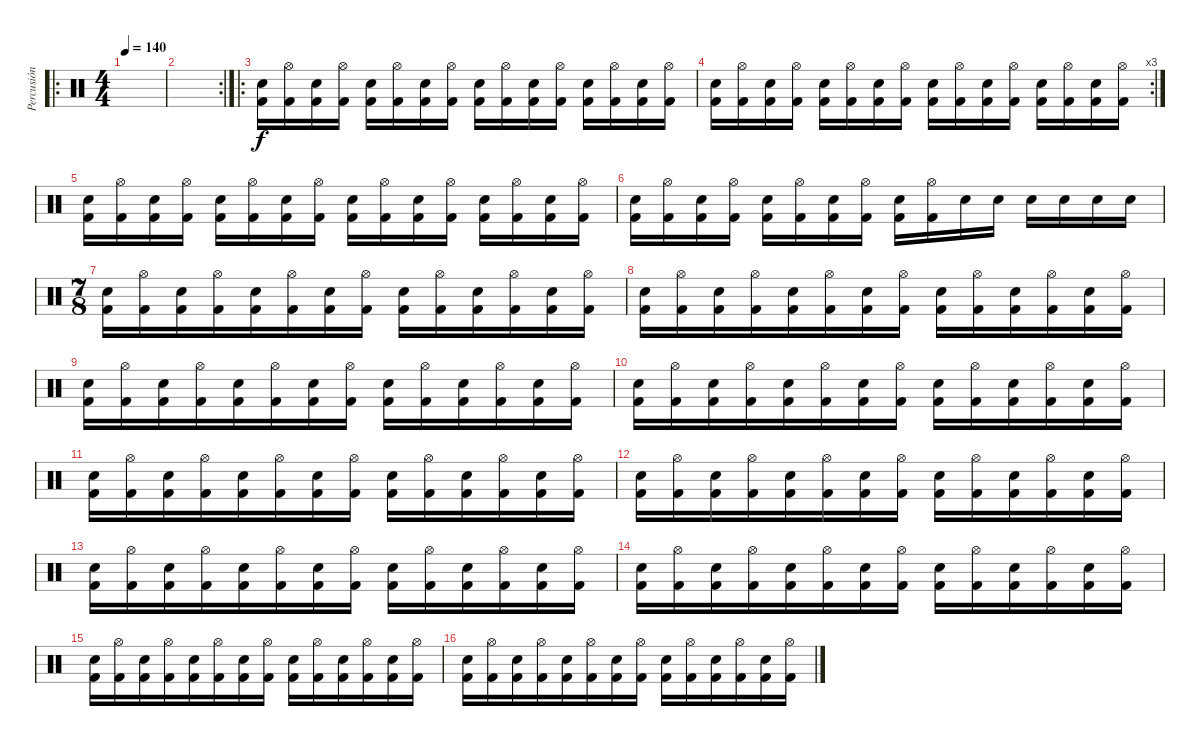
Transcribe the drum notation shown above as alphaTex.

\track ("Percusión" "Percusión") {instrument percussion}
\staff {score}
\articulation defaults
\ro
\ts (4 4)
\tempo 140
\clef neutral
\ks c
|
\rc 2
|
\ro
("Snare (hit) 2" "Kick (hit) 2").16 ("Hi-Hat (open)" "Kick (hit) 2").16 ("Snare (hit) 2" "Kick (hit) 2").16 ("Hi-Hat (open)" "Kick (hit) 2").16 ("Snare (hit) 2" "Kick (hit) 2").16 ("Hi-Hat (open)" "Kick (hit) 2").16 ("Snare (hit) 2" "Kick (hit) 2").16 ("Hi-Hat (open)" "Kick (hit) 2").16 ("Snare (hit) 2" "Kick (hit) 2").16 ("Hi-Hat (open)" "Kick (hit) 2").16 ("Snare (hit) 2" "Kick (hit) 2").16 ("Hi-Hat (open)" "Kick (hit) 2").16 ("Snare (hit) 2" "Kick (hit) 2").16 ("Hi-Hat (open)" "Kick (hit) 2").16 ("Snare (hit) 2" "Kick (hit) 2").16 ("Hi-Hat (open)" "Kick (hit) 2").16 |
\rc 3
("Snare (hit) 2" "Kick (hit) 2").16 ("Hi-Hat (open)" "Kick (hit) 2").16 ("Snare (hit) 2" "Kick (hit) 2").16 ("Hi-Hat (open)" "Kick (hit) 2").16 ("Snare (hit) 2" "Kick (hit) 2").16 ("Hi-Hat (open)" "Kick (hit) 2").16 ("Snare (hit) 2" "Kick (hit) 2").16 ("Hi-Hat (open)" "Kick (hit) 2").16 ("Snare (hit) 2" "Kick (hit) 2").16 ("Hi-Hat (open)" "Kick (hit) 2").16 ("Snare (hit) 2" "Kick (hit) 2").16 ("Hi-Hat (open)" "Kick (hit) 2").16 ("Snare (hit) 2" "Kick (hit) 2").16 ("Hi-Hat (open)" "Kick (hit) 2").16 ("Snare (hit) 2" "Kick (hit) 2").16 ("Hi-Hat (open)" "Kick (hit) 2").16 |
("Snare (hit) 2" "Kick (hit) 2").16 ("Hi-Hat (open)" "Kick (hit) 2").16 ("Snare (hit) 2" "Kick (hit) 2").16 ("Hi-Hat (open)" "Kick (hit) 2").16 ("Snare (hit) 2" "Kick (hit) 2").16 ("Hi-Hat (open)" "Kick (hit) 2").16 ("Snare (hit) 2" "Kick (hit) 2").16 ("Hi-Hat (open)" "Kick (hit) 2").16 ("Snare (hit) 2" "Kick (hit) 2").16 ("Hi-Hat (open)" "Kick (hit) 2").16 ("Snare (hit) 2" "Kick (hit) 2").16 ("Hi-Hat (open)" "Kick (hit) 2").16 ("Snare (hit) 2" "Kick (hit) 2").16 ("Hi-Hat (open)" "Kick (hit) 2").16 ("Snare (hit) 2" "Kick (hit) 2").16 ("Hi-Hat (open)" "Kick (hit) 2").16 |
("Snare (hit) 2" "Kick (hit) 2").16 ("Hi-Hat (open)" "Kick (hit) 2").16 ("Snare (hit) 2" "Kick (hit) 2").16 ("Hi-Hat (open)" "Kick (hit) 2").16 ("Snare (hit) 2" "Kick (hit) 2").16 ("Hi-Hat (open)" "Kick (hit) 2").16 ("Snare (hit) 2" "Kick (hit) 2").16 ("Hi-Hat (open)" "Kick (hit) 2").16 ("Snare (hit) 2" "Kick (hit) 2").16 ("Hi-Hat (open)" "Kick (hit) 2").16 "Snare (hit) 2".16 "Snare (hit) 2".16 "Snare (hit) 2".16 "Snare (hit) 2".16 "Snare (hit) 2".16 "Snare (hit) 2".16 |
\ts (7 8)
("Snare (hit) 2" "Kick (hit) 2").16 ("Hi-Hat (open)" "Kick (hit) 2").16 ("Snare (hit) 2" "Kick (hit) 2").16 ("Hi-Hat (open)" "Kick (hit) 2").16 ("Snare (hit) 2" "Kick (hit) 2").16 ("Hi-Hat (open)" "Kick (hit) 2").16 ("Snare (hit) 2" "Kick (hit) 2").16 ("Hi-Hat (open)" "Kick (hit) 2").16 ("Snare (hit) 2" "Kick (hit) 2").16 ("Hi-Hat (open)" "Kick (hit) 2").16 ("Snare (hit) 2" "Kick (hit) 2").16 ("Hi-Hat (open)" "Kick (hit) 2").16 ("Snare (hit) 2" "Kick (hit) 2").16 ("Hi-Hat (open)" "Kick (hit) 2").16 |
("Snare (hit) 2" "Kick (hit) 2").16 ("Hi-Hat (open)" "Kick (hit) 2").16 ("Snare (hit) 2" "Kick (hit) 2").16 ("Hi-Hat (open)" "Kick (hit) 2").16 ("Snare (hit) 2" "Kick (hit) 2").16 ("Hi-Hat (open)" "Kick (hit) 2").16 ("Snare (hit) 2" "Kick (hit) 2").16 ("Hi-Hat (open)" "Kick (hit) 2").16 ("Snare (hit) 2" "Kick (hit) 2").16 ("Hi-Hat (open)" "Kick (hit) 2").16 ("Snare (hit) 2" "Kick (hit) 2").16 ("Hi-Hat (open)" "Kick (hit) 2").16 ("Snare (hit) 2" "Kick (hit) 2").16 ("Hi-Hat (open)" "Kick (hit) 2").16 |
("Snare (hit) 2" "Kick (hit) 2").16 ("Hi-Hat (open)" "Kick (hit) 2").16 ("Snare (hit) 2" "Kick (hit) 2").16 ("Hi-Hat (open)" "Kick (hit) 2").16 ("Snare (hit) 2" "Kick (hit) 2").16 ("Hi-Hat (open)" "Kick (hit) 2").16 ("Snare (hit) 2" "Kick (hit) 2").16 ("Hi-Hat (open)" "Kick (hit) 2").16 ("Snare (hit) 2" "Kick (hit) 2").16 ("Hi-Hat (open)" "Kick (hit) 2").16 ("Snare (hit) 2" "Kick (hit) 2").16 ("Hi-Hat (open)" "Kick (hit) 2").16 ("Snare (hit) 2" "Kick (hit) 2").16 ("Hi-Hat (open)" "Kick (hit) 2").16 |
("Snare (hit) 2" "Kick (hit) 2").16 ("Hi-Hat (open)" "Kick (hit) 2").16 ("Snare (hit) 2" "Kick (hit) 2").16 ("Hi-Hat (open)" "Kick (hit) 2").16 ("Snare (hit) 2" "Kick (hit) 2").16 ("Hi-Hat (open)" "Kick (hit) 2").16 ("Snare (hit) 2" "Kick (hit) 2").16 ("Hi-Hat (open)" "Kick (hit) 2").16 ("Snare (hit) 2" "Kick (hit) 2").16 ("Hi-Hat (open)" "Kick (hit) 2").16 ("Snare (hit) 2" "Kick (hit) 2").16 ("Hi-Hat (open)" "Kick (hit) 2").16 ("Snare (hit) 2" "Kick (hit) 2").16 ("Hi-Hat (open)" "Kick (hit) 2").16 |
("Snare (hit) 2" "Kick (hit) 2").16 ("Hi-Hat (open)" "Kick (hit) 2").16 ("Snare (hit) 2" "Kick (hit) 2").16 ("Hi-Hat (open)" "Kick (hit) 2").16 ("Snare (hit) 2" "Kick (hit) 2").16 ("Hi-Hat (open)" "Kick (hit) 2").16 ("Snare (hit) 2" "Kick (hit) 2").16 ("Hi-Hat (open)" "Kick (hit) 2").16 ("Snare (hit) 2" "Kick (hit) 2").16 ("Hi-Hat (open)" "Kick (hit) 2").16 ("Snare (hit) 2" "Kick (hit) 2").16 ("Hi-Hat (open)" "Kick (hit) 2").16 ("Snare (hit) 2" "Kick (hit) 2").16 ("Hi-Hat (open)" "Kick (hit) 2").16 |
("Snare (hit) 2" "Kick (hit) 2").16 ("Hi-Hat (open)" "Kick (hit) 2").16 ("Snare (hit) 2" "Kick (hit) 2").16 ("Hi-Hat (open)" "Kick (hit) 2").16 ("Snare (hit) 2" "Kick (hit) 2").16 ("Hi-Hat (open)" "Kick (hit) 2").16 ("Snare (hit) 2" "Kick (hit) 2").16 ("Hi-Hat (open)" "Kick (hit) 2").16 ("Snare (hit) 2" "Kick (hit) 2").16 ("Hi-Hat (open)" "Kick (hit) 2").16 ("Snare (hit) 2" "Kick (hit) 2").16 ("Hi-Hat (open)" "Kick (hit) 2").16 ("Snare (hit) 2" "Kick (hit) 2").16 ("Hi-Hat (open)" "Kick (hit) 2").16 |
("Snare (hit) 2" "Kick (hit) 2").16 ("Hi-Hat (open)" "Kick (hit) 2").16 ("Snare (hit) 2" "Kick (hit) 2").16 ("Hi-Hat (open)" "Kick (hit) 2").16 ("Snare (hit) 2" "Kick (hit) 2").16 ("Hi-Hat (open)" "Kick (hit) 2").16 ("Snare (hit) 2" "Kick (hit) 2").16 ("Hi-Hat (open)" "Kick (hit) 2").16 ("Snare (hit) 2" "Kick (hit) 2").16 ("Hi-Hat (open)" "Kick (hit) 2").16 ("Snare (hit) 2" "Kick (hit) 2").16 ("Hi-Hat (open)" "Kick (hit) 2").16 ("Snare (hit) 2" "Kick (hit) 2").16 ("Hi-Hat (open)" "Kick (hit) 2").16 |
("Snare (hit) 2" "Kick (hit) 2").16 ("Hi-Hat (open)" "Kick (hit) 2").16 ("Snare (hit) 2" "Kick (hit) 2").16 ("Hi-Hat (open)" "Kick (hit) 2").16 ("Snare (hit) 2" "Kick (hit) 2").16 ("Hi-Hat (open)" "Kick (hit) 2").16 ("Snare (hit) 2" "Kick (hit) 2").16 ("Hi-Hat (open)" "Kick (hit) 2").16 ("Snare (hit) 2" "Kick (hit) 2").16 ("Hi-Hat (open)" "Kick (hit) 2").16 ("Snare (hit) 2" "Kick (hit) 2").16 ("Hi-Hat (open)" "Kick (hit) 2").16 ("Snare (hit) 2" "Kick (hit) 2").16 ("Hi-Hat (open)" "Kick (hit) 2").16 |
("Snare (hit) 2" "Kick (hit) 2").16 ("Hi-Hat (open)" "Kick (hit) 2").16 ("Snare (hit) 2" "Kick (hit) 2").16 ("Hi-Hat (open)" "Kick (hit) 2").16 ("Snare (hit) 2" "Kick (hit) 2").16 ("Hi-Hat (open)" "Kick (hit) 2").16 ("Snare (hit) 2" "Kick (hit) 2").16 ("Hi-Hat (open)" "Kick (hit) 2").16 ("Snare (hit) 2" "Kick (hit) 2").16 ("Hi-Hat (open)" "Kick (hit) 2").16 ("Snare (hit) 2" "Kick (hit) 2").16 ("Hi-Hat (open)" "Kick (hit) 2").16 ("Snare (hit) 2" "Kick (hit) 2").16 ("Hi-Hat (open)" "Kick (hit) 2").16 |
("Snare (hit) 2" "Kick (hit) 2").16 ("Hi-Hat (open)" "Kick (hit) 2").16 ("Snare (hit) 2" "Kick (hit) 2").16 ("Hi-Hat (open)" "Kick (hit) 2").16 ("Snare (hit) 2" "Kick (hit) 2").16 ("Hi-Hat (open)" "Kick (hit) 2").16 ("Snare (hit) 2" "Kick (hit) 2").16 ("Hi-Hat (open)" "Kick (hit) 2").16 ("Snare (hit) 2" "Kick (hit) 2").16 ("Hi-Hat (open)" "Kick (hit) 2").16 ("Snare (hit) 2" "Kick (hit) 2").16 ("Hi-Hat (open)" "Kick (hit) 2").16 ("Snare (hit) 2" "Kick (hit) 2").16 ("Hi-Hat (open)" "Kick (hit) 2").16
